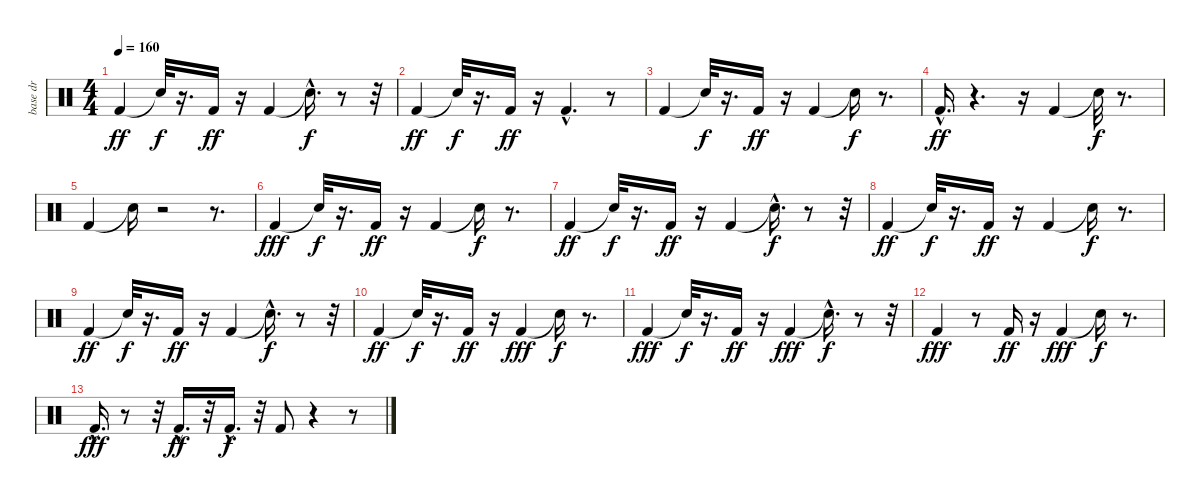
\track ("base dr" "base dr") {instrument percussion}
\staff {score}
\articulation defaults
\ts (4 4)
\tempo 160
\clef neutral
\ks c "Kick (hit) 2".4{dy ff} "Snare (hit)"{t}.32{dy f}
r.16{d} "Kick (hit) 2".16{dy ff} r.16 "Kick (hit) 2".4 "Snare (hit)"{hac t}.16{d dy f} r.8 r.32 |
"Kick (hit) 2".4{dy ff} "Snare (hit)"{t}.32{dy f} r.16{d} "Kick (hit) 2".16{dy ff} r.16 "Kick (hit) 2"{hac}.4{d} r.8 |
"Kick (hit) 2".4 "Snare (hit)"{t}.32{dy f} r.16{d} "Kick (hit) 2".16{dy ff} r.16 "Kick (hit) 2".4 "Snare (hit)"{t}.16{dy f} r.8{d} |
"Kick (hit) 2"{hac}.16{d dy ff} r.4{d} r.16 "Kick (hit) 2".4 "Snare (hit)"{t}.32{dy f} r.8{d} |
"Kick (hit) 2".4 "Snare (hit)"{t}.16 r.2 r.8{d} |
"Kick (hit) 2".4{dy fff} "Snare (hit)"{t}.32{dy f} r.16{d} "Kick (hit) 2".16{dy ff} r.16 "Kick (hit) 2".4 "Snare (hit)"{t}.16{dy f} r.8{d} |
"Kick (hit) 2".4{dy ff} "Snare (hit)"{t}.32{dy f} r.16{d} "Kick (hit) 2".16{dy ff} r.16 "Kick (hit) 2".4 "Snare (hit)"{hac t}.16{d dy f} r.8 r.32 |
"Kick (hit) 2".4{dy ff} "Snare (hit)"{t}.32{dy f} r.16{d} "Kick (hit) 2".16{dy ff} r.16 "Kick (hit) 2".4 "Snare (hit)"{t}.16{dy f} r.8{d} |
"Kick (hit) 2".4{dy ff} "Snare (hit)"{t}.32{dy f} r.16{d} "Kick (hit) 2".16{dy ff} r.16 "Kick (hit) 2".4 "Snare (hit)"{hac t}.16{d dy f} r.8 r.32 |
"Kick (hit) 2".4{dy ff} "Snare (hit)"{t}.32{dy f} r.16{d} "Kick (hit) 2".16{dy ff} r.16 "Kick (hit) 2".4{dy fff} "Snare (hit)"{t}.16{dy f} r.8{d} |
"Kick (hit) 2".4{dy fff} "Snare (hit)"{t}.32{dy f} r.16{d} "Kick (hit) 2".16{dy ff} r.16 "Kick (hit) 2".4{dy fff} "Snare (hit)"{hac t}.16{d dy f} r.8 r.32 |
"Kick (hit) 2".4{dy fff} r.8 "Kick (hit) 2".16{dy ff} r.16 "Kick (hit) 2".4{dy fff} "Snare (hit)"{t}.16{dy f} r.8{d} |
"Kick (hit) 2"{hac}.16{d dy fff} r.8 r.32 "Kick (hit) 2"{hac}.16{d dy ff} r.32 "Kick (hit) 2"{hac}.16{d dy f} r.32 "Kick (hit) 2".8 r.4 r.8
